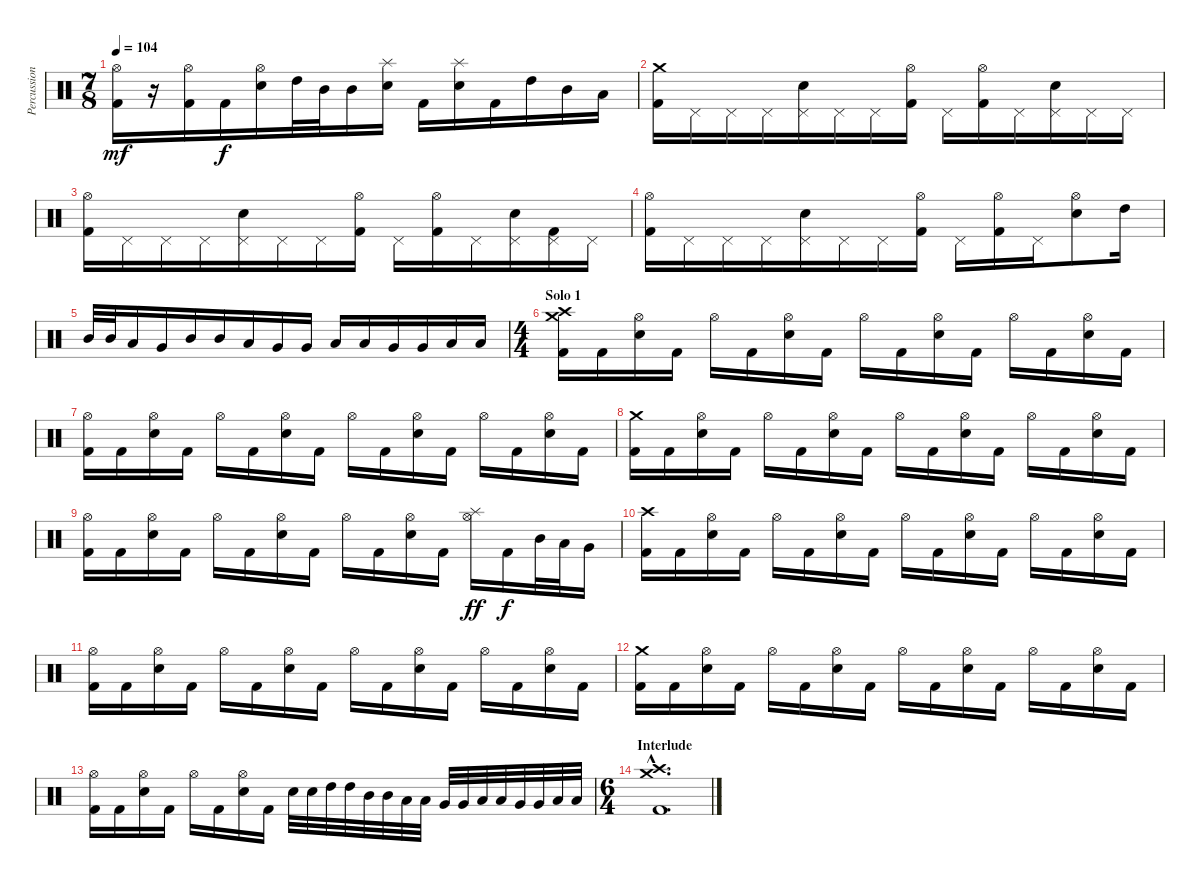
\track ("Percussions" "Percussion") {instrument percussion}
\staff {score}
\articulation defaults
\ts (7 8)
\tempo 104
\clef neutral
\ks c
("Hi-Hat (open)" "Kick (hit) 2").16{dy mf} r.16 ("Hi-Hat (open)" "Kick (hit) 2").16 "Kick (hit) 2".16{dy f} ("Hi-Hat (open)" "Electric Snare (hit)").16 "High Tom (hit)".32 "Mid Tom (hit)".32 "Mid Tom (hit)".16 ("Splash (hit)" "Electric Snare (hit)").16 "Kick (hit) 2".16 ("Splash (hit)" "Electric Snare (hit)").16 "Kick (hit) 2".16 "High Tom (hit)".16 "Mid Tom (hit)".16 "Low Tom (hit)".16 |
("Crash medium (hit)" "Kick (hit) 2").16 "Pedal Hi-Hat (hit)".16 "Pedal Hi-Hat (hit)".16 "Pedal Hi-Hat (hit)".16 ("Pedal Hi-Hat (hit)" "Electric Snare (hit)").16 "Pedal Hi-Hat (hit)".16 "Pedal Hi-Hat (hit)".16 ("Hi-Hat (open)" "Kick (hit) 2").16 "Pedal Hi-Hat (hit)".16 ("Hi-Hat (open)" "Kick (hit) 2").16 "Pedal Hi-Hat (hit)".16 ("Pedal Hi-Hat (hit)" "Electric Snare (hit)").16 "Pedal Hi-Hat (hit)".16 "Pedal Hi-Hat (hit)".16 |
("Hi-Hat (open)" "Kick (hit) 2").16 "Pedal Hi-Hat (hit)".16 "Pedal Hi-Hat (hit)".16 "Pedal Hi-Hat (hit)".16 ("Pedal Hi-Hat (hit)" "Electric Snare (hit)").16 "Pedal Hi-Hat (hit)".16 "Pedal Hi-Hat (hit)".16 ("Hi-Hat (open)" "Kick (hit) 2").16 "Pedal Hi-Hat (hit)".16 ("Hi-Hat (open)" "Kick (hit) 2").16 "Pedal Hi-Hat (hit)".16 ("Pedal Hi-Hat (hit)" "Electric Snare (hit)").16 ("Pedal Hi-Hat (hit)" "Kick (hit) 2").16 "Pedal Hi-Hat (hit)".16 |
("Hi-Hat (open)" "Kick (hit) 2").16 "Pedal Hi-Hat (hit)".16 "Pedal Hi-Hat (hit)".16 "Pedal Hi-Hat (hit)".16 ("Pedal Hi-Hat (hit)" "Electric Snare (hit)").16 "Pedal Hi-Hat (hit)".16 "Pedal Hi-Hat (hit)".16 ("Hi-Hat (open)" "Kick (hit) 2").16 "Pedal Hi-Hat (hit)".16 ("Hi-Hat (open)" "Kick (hit) 2").16 "Pedal Hi-Hat (hit)".16 ("Hi-Hat (open)" "Electric Snare (hit)").8 "High Tom (hit)".16 |
"Mid Tom (hit)".32 "Mid Tom (hit)".32 "Low Tom (hit)".16 "Very Low Tom (hit)".16 "Mid Tom (hit)".16 "Mid Tom (hit)".16 "Low Tom (hit)".16 "Very Low Tom (hit)".16 "Very Low Tom (hit)".16 "Low Tom (hit)".16 "Low Tom (hit)".16 "Very Low Tom (hit)".16 "Very Low Tom (hit)".16 "Low Floor Tom (hit)".16 "Low Floor Tom (hit)".16 |
\ts (4 4)
\section ("" "Solo 1")
("Crash high (hit)" "Crash medium (hit)" "Kick (hit) 2").16 "Kick (hit) 2".16 ("Hi-Hat (open)" "Electric Snare (hit)").16 "Kick (hit) 2".16 "Hi-Hat (open)".16 "Kick (hit) 2".16 ("Hi-Hat (open)" "Electric Snare (hit)").16 "Kick (hit) 2".16 "Hi-Hat (open)".16 "Kick (hit) 2".16 ("Hi-Hat (open)" "Electric Snare (hit)").16 "Kick (hit) 2".16 "Hi-Hat (open)".16 "Kick (hit) 2".16 ("Hi-Hat (open)" "Electric Snare (hit)").16 "Kick (hit) 2".16 |
("Hi-Hat (open)" "Kick (hit) 2").16 "Kick (hit) 2".16 ("Hi-Hat (open)" "Electric Snare (hit)").16 "Kick (hit) 2".16 "Hi-Hat (open)".16 "Kick (hit) 2".16 ("Hi-Hat (open)" "Electric Snare (hit)").16 "Kick (hit) 2".16 "Hi-Hat (open)".16 "Kick (hit) 2".16 ("Hi-Hat (open)" "Electric Snare (hit)").16 "Kick (hit) 2".16 "Hi-Hat (open)".16 "Kick (hit) 2".16 ("Hi-Hat (open)" "Electric Snare (hit)").16 "Kick (hit) 2".16 |
("Crash medium (hit)" "Kick (hit) 2").16 "Kick (hit) 2".16 ("Hi-Hat (open)" "Electric Snare (hit)").16 "Kick (hit) 2".16 "Hi-Hat (open)".16 "Kick (hit) 2".16 ("Hi-Hat (open)" "Electric Snare (hit)").16 "Kick (hit) 2".16 "Hi-Hat (open)".16 "Kick (hit) 2".16 ("Hi-Hat (open)" "Electric Snare (hit)").16 "Kick (hit) 2".16 "Hi-Hat (open)".16 "Kick (hit) 2".16 ("Hi-Hat (open)" "Electric Snare (hit)").16 "Kick (hit) 2".16 |
("Hi-Hat (open)" "Kick (hit) 2").16 "Kick (hit) 2".16 ("Hi-Hat (open)" "Electric Snare (hit)").16 "Kick (hit) 2".16 "Hi-Hat (open)".16 "Kick (hit) 2".16 ("Hi-Hat (open)" "Electric Snare (hit)").16 "Kick (hit) 2".16 "Hi-Hat (open)".16 "Kick (hit) 2".16 ("Hi-Hat (open)" "Electric Snare (hit)").16 "Kick (hit) 2".16 ("Splash (hit)" "Hi-Hat (open)").16{dy ff} "Kick (hit) 2".16{dy f} "Mid Tom (hit)".32 "Low Tom (hit)".32 "Very Low Tom (hit)".16 |
("Crash high (hit)" "Kick (hit) 2").16 "Kick (hit) 2".16 ("Hi-Hat (open)" "Electric Snare (hit)").16 "Kick (hit) 2".16 "Hi-Hat (open)".16 "Kick (hit) 2".16 ("Hi-Hat (open)" "Electric Snare (hit)").16 "Kick (hit) 2".16 "Hi-Hat (open)".16 "Kick (hit) 2".16 ("Hi-Hat (open)" "Electric Snare (hit)").16 "Kick (hit) 2".16 "Hi-Hat (open)".16 "Kick (hit) 2".16 ("Hi-Hat (open)" "Electric Snare (hit)").16 "Kick (hit) 2".16 |
("Hi-Hat (open)" "Kick (hit) 2").16 "Kick (hit) 2".16 ("Hi-Hat (open)" "Electric Snare (hit)").16 "Kick (hit) 2".16 "Hi-Hat (open)".16 "Kick (hit) 2".16 ("Hi-Hat (open)" "Electric Snare (hit)").16 "Kick (hit) 2".16 "Hi-Hat (open)".16 "Kick (hit) 2".16 ("Hi-Hat (open)" "Electric Snare (hit)").16 "Kick (hit) 2".16 "Hi-Hat (open)".16 "Kick (hit) 2".16 ("Hi-Hat (open)" "Electric Snare (hit)").16 "Kick (hit) 2".16 |
("Crash medium (hit)" "Kick (hit) 2").16 "Kick (hit) 2".16 ("Hi-Hat (open)" "Electric Snare (hit)").16 "Kick (hit) 2".16 "Hi-Hat (open)".16 "Kick (hit) 2".16 ("Hi-Hat (open)" "Electric Snare (hit)").16 "Kick (hit) 2".16 "Hi-Hat (open)".16 "Kick (hit) 2".16 ("Hi-Hat (open)" "Electric Snare (hit)").16 "Kick (hit) 2".16 "Hi-Hat (open)".16 "Kick (hit) 2".16 ("Hi-Hat (open)" "Electric Snare (hit)").16 "Kick (hit) 2".16 |
("Hi-Hat (open)" "Kick (hit) 2").16 "Kick (hit) 2".16 ("Hi-Hat (open)" "Electric Snare (hit)").16 "Kick (hit) 2".16 "Hi-Hat (open)".16 "Kick (hit) 2".16 ("Hi-Hat (open)" "Electric Snare (hit)").16 "Kick (hit) 2".16 "Electric Snare (hit)".32 "Electric Snare (hit)".32 "High Tom (hit)".32 "High Tom (hit)".32 "Mid Tom (hit)".32 "Mid Tom (hit)".32 "Low Tom (hit)".32 "Low Tom (hit)".32 "Very Low Tom (hit)".32 "Very Low Tom (hit)".32 "Low Tom (hit)".32 "Low Tom (hit)".32 "Very Low Tom (hit)".32 "Very Low Tom (hit)".32 "Low Floor Tom (hit)".32 "Low Floor Tom (hit)".32 |
\ts (6 4)
\section ("" "Interlude")
("Crash medium (hit)"{hac} "Crash high (hit)"{hac} "Kick (hit) 2"{hac}).1{d}
